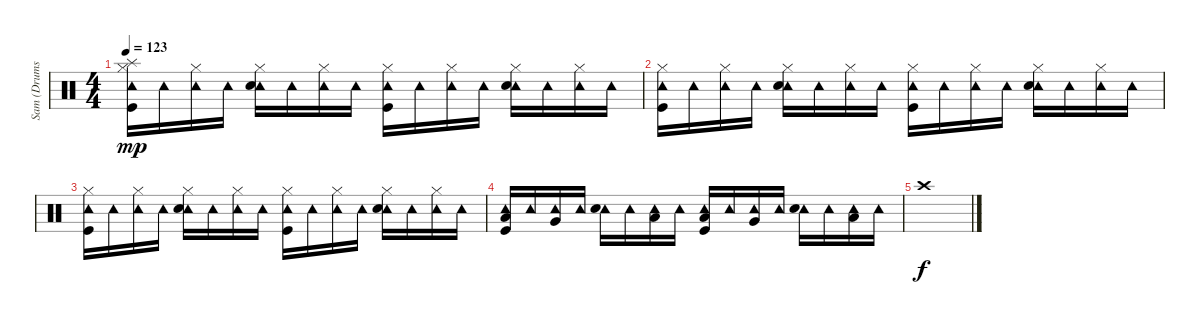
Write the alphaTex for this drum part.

\track ("Sam (Drums)" "Sam (Drums") {instrument percussion}
\staff {score}
\articulation defaults
\ts (4 4)
\tempo 123
\clef neutral
\ks c
("Splash (hit)" "Hi-Hat (closed)" "Tambourine (hit)" "Kick (hit)").16{dy mp} "Tambourine (hit)".16 ("Hi-Hat (closed)" "Tambourine (hit)").16 "Tambourine (hit)".16 ("Hi-Hat (closed)" "Tambourine (hit)" "Snare (hit) 2").16 "Tambourine (hit)".16 ("Hi-Hat (closed)" "Tambourine (hit)").16 "Tambourine (hit)".16 ("Hi-Hat (closed)" "Tambourine (hit)" "Kick (hit)").16 "Tambourine (hit)".16 ("Hi-Hat (closed)" "Tambourine (hit)").16 "Tambourine (hit)".16 ("Hi-Hat (closed)" "Tambourine (hit)" "Snare (hit) 2").16 "Tambourine (hit)".16 ("Hi-Hat (closed)" "Tambourine (hit)").16 "Tambourine (hit)".16 |
("Hi-Hat (closed)" "Tambourine (hit)" "Kick (hit)").16 "Tambourine (hit)".16 ("Hi-Hat (closed)" "Tambourine (hit)").16 "Tambourine (hit)".16 ("Hi-Hat (closed)" "Tambourine (hit)" "Snare (hit) 2").16 "Tambourine (hit)".16 ("Hi-Hat (closed)" "Tambourine (hit)").16 "Tambourine (hit)".16 ("Hi-Hat (closed)" "Tambourine (hit)" "Kick (hit)").16 "Tambourine (hit)".16 ("Hi-Hat (closed)" "Tambourine (hit)").16 "Tambourine (hit)".16 ("Hi-Hat (closed)" "Tambourine (hit)" "Snare (hit) 2").16 "Tambourine (hit)".16 ("Hi-Hat (closed)" "Tambourine (hit)").16 "Tambourine (hit)".16 |
("Hi-Hat (closed)" "Tambourine (hit)" "Kick (hit)").16 "Tambourine (hit)".16 ("Hi-Hat (closed)" "Tambourine (hit)").16 "Tambourine (hit)".16 ("Hi-Hat (closed)" "Tambourine (hit)" "Snare (hit) 2").16 "Tambourine (hit)".16 ("Hi-Hat (closed)" "Tambourine (hit)").16 "Tambourine (hit)".16 ("Hi-Hat (closed)" "Tambourine (hit)" "Kick (hit)").16 "Tambourine (hit)".16 ("Hi-Hat (closed)" "Tambourine (hit)").16 "Tambourine (hit)".16 ("Hi-Hat (closed)" "Tambourine (hit)" "Snare (hit) 2").16 "Tambourine (hit)".16 ("Hi-Hat (closed)" "Tambourine (hit)").16 "Tambourine (hit)".16 |
("Tambourine (hit)" "Low Tom (hit)" "Kick (hit)").16 "Tambourine (hit)".16 ("Tambourine (hit)" "Very Low Tom (hit)").16 "Tambourine (hit)".16 ("Tambourine (hit)" "Snare (hit) 2").16 "Tambourine (hit)".16 ("Tambourine (hit)" "Low Floor Tom (hit)").16 "Tambourine (hit)".16 ("Tambourine (hit)" "Low Tom (hit)" "Kick (hit)").16 "Tambourine (hit)".16 ("Tambourine (hit)" "Very Low Tom (hit)").16 "Tambourine (hit)".16 ("Tambourine (hit)" "Snare (hit) 2").16 "Tambourine (hit)".16 ("Tambourine (hit)" "Low Floor Tom (hit)").16 "Tambourine (hit)".16 |
"Crash high (hit)".1{dy f}
